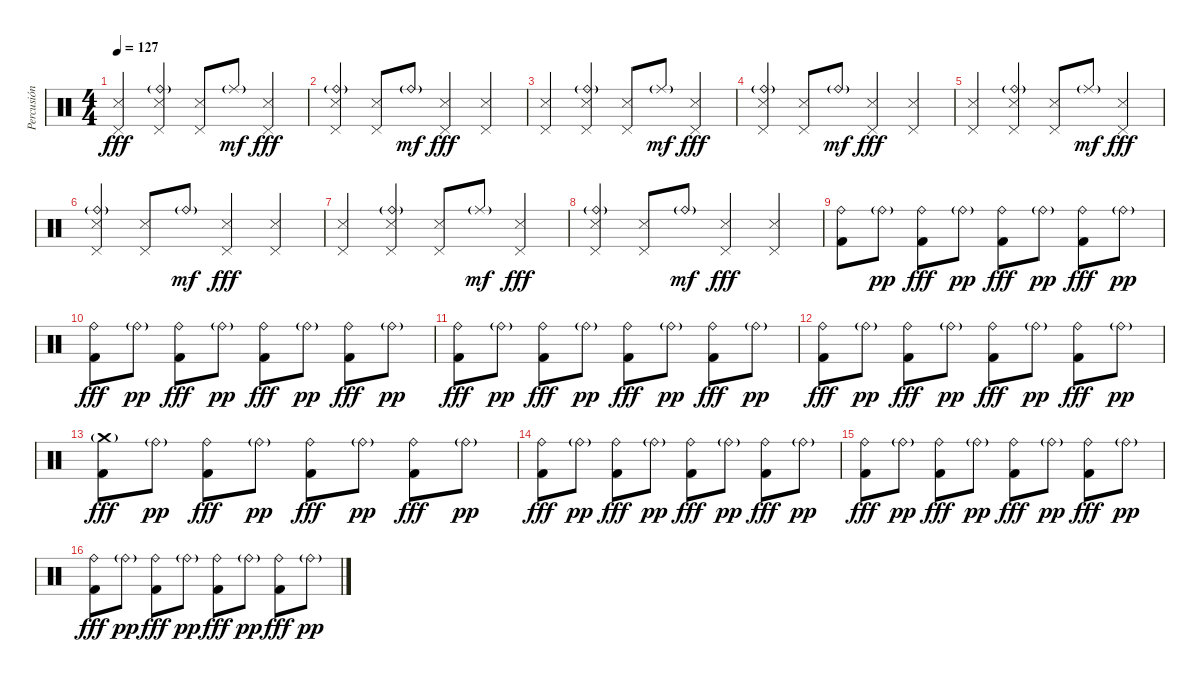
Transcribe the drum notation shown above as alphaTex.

\track ("Percusión" "Percusión") {instrument percussion}
\staff {score}
\articulation defaults
\ts (4 4)
\tempo 127
\clef neutral
\ks c
("Pedal Hi-Hat (hit)" "Snare (side stick) 3").4{dy fff} ("Ride (bell)"{g} "Pedal Hi-Hat (hit)" "Snare (side stick) 3").4 ("Pedal Hi-Hat (hit)" "Snare (side stick) 3").8 "Ride (middle)"{g}.8{dy mf} ("Pedal Hi-Hat (hit)" "Snare (side stick) 3").4{dy fff} |
("Ride (bell)"{g} "Pedal Hi-Hat (hit)" "Snare (side stick) 3").4 ("Pedal Hi-Hat (hit)" "Snare (side stick) 3").8 "Ride (bell)"{g}.8{dy mf} ("Pedal Hi-Hat (hit)" "Snare (side stick) 3").4{dy fff} ("Pedal Hi-Hat (hit)" "Snare (side stick) 3").4 |
("Pedal Hi-Hat (hit)" "Snare (side stick) 3").4 ("Ride (bell)"{g} "Pedal Hi-Hat (hit)" "Snare (side stick) 3").4 ("Pedal Hi-Hat (hit)" "Snare (side stick) 3").8 "Ride (middle)"{g}.8{dy mf} ("Pedal Hi-Hat (hit)" "Snare (side stick) 3").4{dy fff} |
("Ride (bell)"{g} "Pedal Hi-Hat (hit)" "Snare (side stick) 3").4 ("Pedal Hi-Hat (hit)" "Snare (side stick) 3").8 "Ride (bell)"{g}.8{dy mf} ("Pedal Hi-Hat (hit)" "Snare (side stick) 3").4{dy fff} ("Pedal Hi-Hat (hit)" "Snare (side stick) 3").4 |
("Pedal Hi-Hat (hit)" "Snare (side stick) 3").4 ("Ride (bell)"{g} "Pedal Hi-Hat (hit)" "Snare (side stick) 3").4 ("Pedal Hi-Hat (hit)" "Snare (side stick) 3").8 "Ride (middle)"{g}.8{dy mf} ("Pedal Hi-Hat (hit)" "Snare (side stick) 3").4{dy fff} |
("Ride (bell)"{g} "Pedal Hi-Hat (hit)" "Snare (side stick) 3").4 ("Pedal Hi-Hat (hit)" "Snare (side stick) 3").8 "Ride (bell)"{g}.8{dy mf} ("Pedal Hi-Hat (hit)" "Snare (side stick) 3").4{dy fff} ("Pedal Hi-Hat (hit)" "Snare (side stick) 3").4 |
("Pedal Hi-Hat (hit)" "Snare (side stick) 3").4 ("Ride (bell)"{g} "Pedal Hi-Hat (hit)" "Snare (side stick) 3").4 ("Pedal Hi-Hat (hit)" "Snare (side stick) 3").8 "Ride (middle)"{g}.8{dy mf} ("Pedal Hi-Hat (hit)" "Snare (side stick) 3").4{dy fff} |
("Ride (bell)"{g} "Pedal Hi-Hat (hit)" "Snare (side stick) 3").4 ("Pedal Hi-Hat (hit)" "Snare (side stick) 3").8 "Ride (bell)"{g}.8{dy mf} ("Pedal Hi-Hat (hit)" "Snare (side stick) 3").4{dy fff} ("Pedal Hi-Hat (hit)" "Snare (side stick) 3").4 |
("Ride (bell)" "Kick (hit) 2").8 "Ride (bell)"{g}.8{dy pp} ("Ride (bell)" "Kick (hit) 2").8{dy fff} "Ride (bell)"{g}.8{dy pp} ("Ride (bell)" "Kick (hit) 2").8{dy fff} "Ride (bell)"{g}.8{dy pp} ("Ride (bell)" "Kick (hit) 2").8{dy fff} "Ride (bell)"{g}.8{dy pp} |
("Ride (bell)" "Kick (hit) 2").8{dy fff} "Ride (bell)"{g}.8{dy pp} ("Ride (bell)" "Kick (hit) 2").8{dy fff} "Ride (bell)"{g}.8{dy pp} ("Ride (bell)" "Kick (hit) 2").8{dy fff} "Ride (bell)"{g}.8{dy pp} ("Ride (bell)" "Kick (hit) 2").8{dy fff} "Ride (bell)"{g}.8{dy pp} |
("Ride (bell)" "Kick (hit) 2").8{dy fff} "Ride (bell)"{g}.8{dy pp} ("Ride (bell)" "Kick (hit) 2").8{dy fff} "Ride (bell)"{g}.8{dy pp} ("Ride (bell)" "Kick (hit) 2").8{dy fff} "Ride (bell)"{g}.8{dy pp} ("Ride (bell)" "Kick (hit) 2").8{dy fff} "Ride (bell)"{g}.8{dy pp} |
("Ride (bell)" "Kick (hit) 2").8{dy fff} "Ride (bell)"{g}.8{dy pp} ("Ride (bell)" "Kick (hit) 2").8{dy fff} "Ride (bell)"{g}.8{dy pp} ("Ride (bell)" "Kick (hit) 2").8{dy fff} "Ride (bell)"{g}.8{dy pp} ("Ride (bell)" "Kick (hit) 2").8{dy fff} "Ride (bell)"{g}.8{dy pp} |
("Crash medium (hit)"{g} "Kick (hit) 2").8{dy fff} "Ride (bell)"{g}.8{dy pp} ("Ride (bell)" "Kick (hit) 2").8{dy fff} "Ride (bell)"{g}.8{dy pp} ("Ride (bell)" "Kick (hit) 2").8{dy fff} "Ride (bell)"{g}.8{dy pp} ("Ride (bell)" "Kick (hit) 2").8{dy fff} "Ride (bell)"{g}.8{dy pp} |
("Ride (bell)" "Kick (hit) 2").8{dy fff} "Ride (bell)"{g}.8{dy pp} ("Ride (bell)" "Kick (hit) 2").8{dy fff} "Ride (bell)"{g}.8{dy pp} ("Ride (bell)" "Kick (hit) 2").8{dy fff} "Ride (bell)"{g}.8{dy pp} ("Ride (bell)" "Kick (hit) 2").8{dy fff} "Ride (bell)"{g}.8{dy pp} |
("Ride (bell)" "Kick (hit) 2").8{dy fff} "Ride (bell)"{g}.8{dy pp} ("Ride (bell)" "Kick (hit) 2").8{dy fff} "Ride (bell)"{g}.8{dy pp} ("Ride (bell)" "Kick (hit) 2").8{dy fff} "Ride (bell)"{g}.8{dy pp} ("Ride (bell)" "Kick (hit) 2").8{dy fff} "Ride (bell)"{g}.8{dy pp} |
("Ride (bell)" "Kick (hit) 2").8{dy fff} "Ride (bell)"{g}.8{dy pp} ("Ride (bell)" "Kick (hit) 2").8{dy fff} "Ride (bell)"{g}.8{dy pp} ("Ride (bell)" "Kick (hit) 2").8{dy fff} "Ride (bell)"{g}.8{dy pp} ("Ride (bell)" "Kick (hit) 2").8{dy fff} "Ride (bell)"{g}.8{dy pp}
